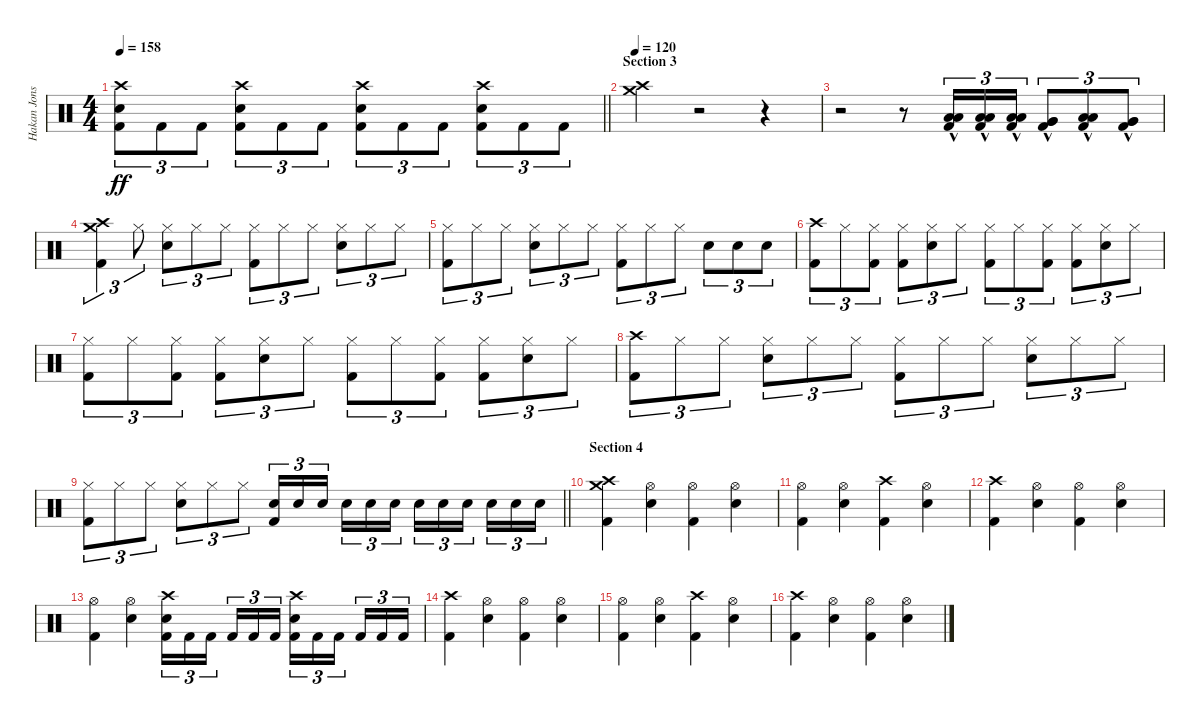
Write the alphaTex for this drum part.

\track ("Hakan Jonsson" "Hakan Jons") {instrument percussion}
\staff {score}
\articulation defaults
\ts (4 4)
\tempo 158
\clef neutral
\barLineRight lightlight
\ks c
("Crash high (hit)" "Electric Snare (hit)" "Kick (hit) 2").8{tu (3 2) dy ff} "Kick (hit) 2".8{tu (3 2)} "Kick (hit) 2".8{tu (3 2)} ("Crash high (hit)" "Electric Snare (hit)" "Kick (hit) 2").8{tu (3 2)} "Kick (hit) 2".8{tu (3 2)} "Kick (hit) 2".8{tu (3 2)} ("Crash high (hit)" "Electric Snare (hit)" "Kick (hit) 2").8{tu (3 2)} "Kick (hit) 2".8{tu (3 2)} "Kick (hit) 2".8{tu (3 2)} ("Crash high (hit)" "Electric Snare (hit)" "Kick (hit) 2").8{tu (3 2)} "Kick (hit) 2".8{tu (3 2)} "Kick (hit) 2".8{tu (3 2)} |
\section ("" "Section 3")
\tempo 120
("Crash medium (hit)" "Crash high (hit)").4 r.2 r.4 |
r.2 r.8 ("Low Floor Tom (hit)"{hac} "Low Floor Tom (hit)"{hac} "Kick (hit) 2"{hac}).16{tu (3 2)} ("Low Floor Tom (hit)"{hac} "Low Floor Tom (hit)"{hac} "Kick (hit) 2"{hac}).16{tu (3 2)} ("Low Floor Tom (hit)"{hac} "Low Floor Tom (hit)"{hac} "Kick (hit) 2"{hac}).16{tu (3 2)} ("Very Low Tom (hit)"{hac} "Very Low Tom (hit)"{hac} "Kick (hit) 2"{hac}).8{tu (3 2)} ("Low Floor Tom (hit)"{hac} "Low Floor Tom (hit)"{hac} "Kick (hit) 2"{hac}).8{tu (3 2)} ("Very Low Tom (hit)"{hac} "Very Low Tom (hit)"{hac} "Kick (hit) 2"{hac}).8{tu (3 2)} |
("Crash medium (hit)" "Crash high (hit)" "Kick (hit) 2").4{tu (3 2)} "Hi-Hat (closed)".8{tu (3 2)} ("Hi-Hat (closed)" "Electric Snare (hit)").8{tu (3 2)} "Hi-Hat (closed)".8{tu (3 2)} "Hi-Hat (closed)".8{tu (3 2)} ("Hi-Hat (closed)" "Kick (hit) 2").8{tu (3 2)} "Hi-Hat (closed)".8{tu (3 2)} "Hi-Hat (closed)".8{tu (3 2)} ("Hi-Hat (closed)" "Electric Snare (hit)").8{tu (3 2)} "Hi-Hat (closed)".8{tu (3 2)} "Hi-Hat (closed)".8{tu (3 2)} |
("Hi-Hat (closed)" "Kick (hit) 2").8{tu (3 2)} "Hi-Hat (closed)".8{tu (3 2)} "Hi-Hat (closed)".8{tu (3 2)} ("Hi-Hat (closed)" "Electric Snare (hit)").8{tu (3 2)} "Hi-Hat (closed)".8{tu (3 2)} "Hi-Hat (closed)".8{tu (3 2)} ("Hi-Hat (closed)" "Kick (hit) 2").8{tu (3 2)} "Hi-Hat (closed)".8{tu (3 2)} "Hi-Hat (closed)".8{tu (3 2)} "Electric Snare (hit)".8{tu (3 2)} "Electric Snare (hit)".8{tu (3 2)} "Electric Snare (hit)".8{tu (3 2)} |
("Crash high (hit)" "Kick (hit) 2").8{tu (3 2)} "Hi-Hat (closed)".8{tu (3 2)} ("Hi-Hat (closed)" "Kick (hit) 2").8{tu (3 2)} ("Hi-Hat (closed)" "Kick (hit) 2").8{tu (3 2)} ("Hi-Hat (closed)" "Electric Snare (hit)").8{tu (3 2)} "Hi-Hat (closed)".8{tu (3 2)} ("Hi-Hat (closed)" "Kick (hit) 2").8{tu (3 2)} "Hi-Hat (closed)".8{tu (3 2)} ("Hi-Hat (closed)" "Kick (hit) 2").8{tu (3 2)} ("Hi-Hat (closed)" "Kick (hit) 2").8{tu (3 2)} ("Hi-Hat (closed)" "Electric Snare (hit)").8{tu (3 2)} "Hi-Hat (closed)".8{tu (3 2)} |
("Hi-Hat (closed)" "Kick (hit) 2").8{tu (3 2)} "Hi-Hat (closed)".8{tu (3 2)} ("Hi-Hat (closed)" "Kick (hit) 2").8{tu (3 2)} ("Hi-Hat (closed)" "Kick (hit) 2").8{tu (3 2)} ("Hi-Hat (closed)" "Electric Snare (hit)").8{tu (3 2)} "Hi-Hat (closed)".8{tu (3 2)} ("Hi-Hat (closed)" "Kick (hit) 2").8{tu (3 2)} "Hi-Hat (closed)".8{tu (3 2)} ("Hi-Hat (closed)" "Kick (hit) 2").8{tu (3 2)} ("Hi-Hat (closed)" "Kick (hit) 2").8{tu (3 2)} ("Hi-Hat (closed)" "Electric Snare (hit)").8{tu (3 2)} "Hi-Hat (closed)".8{tu (3 2)} |
("Crash high (hit)" "Kick (hit) 2").8{tu (3 2)} "Hi-Hat (closed)".8{tu (3 2)} "Hi-Hat (closed)".8{tu (3 2)} ("Hi-Hat (closed)" "Electric Snare (hit)").8{tu (3 2)} "Hi-Hat (closed)".8{tu (3 2)} "Hi-Hat (closed)".8{tu (3 2)} ("Hi-Hat (closed)" "Kick (hit) 2").8{tu (3 2)} "Hi-Hat (closed)".8{tu (3 2)} "Hi-Hat (closed)".8{tu (3 2)} ("Hi-Hat (closed)" "Electric Snare (hit)").8{tu (3 2)} "Hi-Hat (closed)".8{tu (3 2)} "Hi-Hat (closed)".8{tu (3 2)} |
\barLineRight lightlight
("Hi-Hat (closed)" "Kick (hit) 2").8{tu (3 2)} "Hi-Hat (closed)".8{tu (3 2)} "Hi-Hat (closed)".8{tu (3 2)} ("Hi-Hat (closed)" "Electric Snare (hit)").8{tu (3 2)} "Hi-Hat (closed)".8{tu (3 2)} "Hi-Hat (closed)".8{tu (3 2)} ("Electric Snare (hit)" "Kick (hit) 2").16{tu (3 2)} "Electric Snare (hit)".16{tu (3 2)} "Electric Snare (hit)".16{tu (3 2) beam splitsecondary} "Electric Snare (hit)".16{tu (3 2)} "Electric Snare (hit)".16{tu (3 2)} "Electric Snare (hit)".16{tu (3 2)} "Electric Snare (hit)".16{tu (3 2)} "Electric Snare (hit)".16{tu (3 2)} "Electric Snare (hit)".16{tu (3 2) beam splitsecondary} "Electric Snare (hit)".16{tu (3 2)} "Electric Snare (hit)".16{tu (3 2)} "Electric Snare (hit)".16{tu (3 2)} |
\section ("" "Section 4")
("Crash medium (hit)" "Crash high (hit)" "Kick (hit) 2").4 ("Hi-Hat (open)" "Electric Snare (hit)").4 ("Hi-Hat (open)" "Kick (hit) 2").4 ("Hi-Hat (open)" "Electric Snare (hit)").4 |
("Hi-Hat (open)" "Kick (hit) 2").4 ("Hi-Hat (open)" "Electric Snare (hit)").4 ("Crash high (hit)" "Kick (hit) 2").4 ("Hi-Hat (open)" "Electric Snare (hit)").4 |
("Crash high (hit)" "Kick (hit) 2").4 ("Hi-Hat (open)" "Electric Snare (hit)").4 ("Hi-Hat (open)" "Kick (hit) 2").4 ("Hi-Hat (open)" "Electric Snare (hit)").4 |
("Hi-Hat (open)" "Kick (hit) 2").4 ("Hi-Hat (open)" "Electric Snare (hit)").4 ("Crash high (hit)" "Electric Snare (hit)" "Kick (hit) 2").16{tu (3 2)} "Kick (hit) 2".16{tu (3 2)} "Kick (hit) 2".16{tu (3 2) beam splitsecondary} "Kick (hit) 2".16{tu (3 2)} "Kick (hit) 2".16{tu (3 2)} "Kick (hit) 2".16{tu (3 2)} ("Crash high (hit)" "Electric Snare (hit)" "Kick (hit) 2").16{tu (3 2)} "Kick (hit) 2".16{tu (3 2)} "Kick (hit) 2".16{tu (3 2) beam splitsecondary} "Kick (hit) 2".16{tu (3 2)} "Kick (hit) 2".16{tu (3 2)} "Kick (hit) 2".16{tu (3 2)} |
("Crash high (hit)" "Kick (hit) 2").4 ("Hi-Hat (open)" "Electric Snare (hit)").4 ("Hi-Hat (open)" "Kick (hit) 2").4 ("Hi-Hat (open)" "Electric Snare (hit)").4 |
("Hi-Hat (open)" "Kick (hit) 2").4 ("Hi-Hat (open)" "Electric Snare (hit)").4 ("Crash high (hit)" "Kick (hit) 2").4 ("Hi-Hat (open)" "Electric Snare (hit)").4 |
("Crash high (hit)" "Kick (hit) 2").4 ("Hi-Hat (open)" "Electric Snare (hit)").4 ("Hi-Hat (open)" "Kick (hit) 2").4 ("Hi-Hat (open)" "Electric Snare (hit)").4
